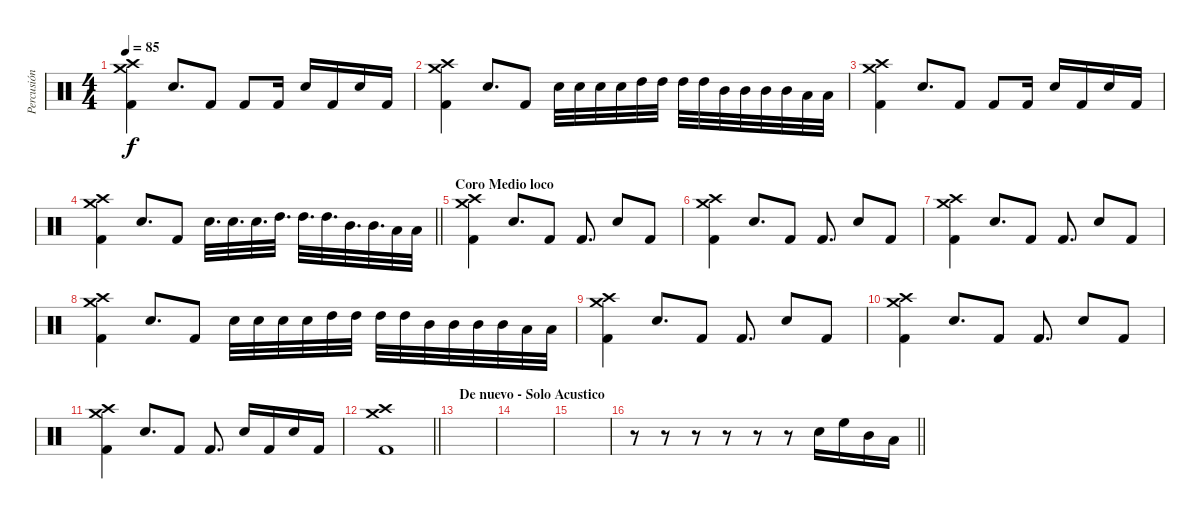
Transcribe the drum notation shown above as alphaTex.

\track ("Percusión" "Percusión") {instrument percussion}
\staff {score}
\articulation defaults
\ts (4 4)
\tempo 85
\clef neutral
\ks c
("Crash medium (hit)" "Crash high (hit)" "Kick (hit) 2").4{dy f} "Electric Snare (hit)".8{d} "Kick (hit) 2".8 "Kick (hit) 2".8 "Kick (hit) 2".16 "Electric Snare (hit)".16 "Kick (hit) 2".16 "Electric Snare (hit)".16 "Kick (hit) 2".16 |
("Crash medium (hit)" "Crash high (hit)" "Kick (hit) 2").4 "Electric Snare (hit)".8{d} "Kick (hit) 2".8 "Electric Snare (hit)".32 "Electric Snare (hit)".32 "Electric Snare (hit)".32 "Electric Snare (hit)".32 "High Tom (hit)".32 "High Tom (hit)".32 "High Tom (hit)".32 "High Tom (hit)".32 "Mid Tom (hit)".32 "Mid Tom (hit)".32 "Mid Tom (hit)".32 "Mid Tom (hit)".32 "Low Tom (hit)".32 "Low Tom (hit)".32 |
("Crash medium (hit)" "Crash high (hit)" "Kick (hit) 2").4 "Electric Snare (hit)".8{d} "Kick (hit) 2".8 "Kick (hit) 2".8 "Kick (hit) 2".16 "Electric Snare (hit)".16 "Kick (hit) 2".16 "Electric Snare (hit)".16 "Kick (hit) 2".16 |
\barLineRight lightlight
("Crash medium (hit)" "Crash high (hit)" "Kick (hit) 2").4 "Electric Snare (hit)".8{d} "Kick (hit) 2".8 "Electric Snare (hit)".32{d} "Electric Snare (hit)".32{d} "Electric Snare (hit)".32{d} "High Tom (hit)".32{d} "High Tom (hit)".32{d} "High Tom (hit)".32{d} "Mid Tom (hit)".32{d} "Mid Tom (hit)".32{d} "Low Tom (hit)".32 "Low Tom (hit)".32 |
\section ("" "Coro Medio loco")
("Crash medium (hit)" "Crash high (hit)" "Kick (hit) 2").4 "Electric Snare (hit)".8{d} "Kick (hit) 2".8 "Kick (hit) 2".8{d} "Electric Snare (hit)".8 "Kick (hit) 2".8 |
("Crash medium (hit)" "Crash high (hit)" "Kick (hit) 2").4 "Electric Snare (hit)".8{d} "Kick (hit) 2".8 "Kick (hit) 2".8{d} "Electric Snare (hit)".8 "Kick (hit) 2".8 |
("Crash medium (hit)" "Crash high (hit)" "Kick (hit) 2").4 "Electric Snare (hit)".8{d} "Kick (hit) 2".8 "Kick (hit) 2".8{d} "Electric Snare (hit)".8 "Kick (hit) 2".8 |
("Crash medium (hit)" "Crash high (hit)" "Kick (hit) 2").4 "Electric Snare (hit)".8{d} "Kick (hit) 2".8 "Electric Snare (hit)".32 "Electric Snare (hit)".32 "Electric Snare (hit)".32 "Electric Snare (hit)".32 "High Tom (hit)".32 "High Tom (hit)".32 "High Tom (hit)".32 "High Tom (hit)".32 "Mid Tom (hit)".32 "Mid Tom (hit)".32 "Mid Tom (hit)".32 "Mid Tom (hit)".32 "Low Tom (hit)".32 "Low Tom (hit)".32 |
("Crash medium (hit)" "Crash high (hit)" "Kick (hit) 2").4 "Electric Snare (hit)".8{d} "Kick (hit) 2".8 "Kick (hit) 2".8{d} "Electric Snare (hit)".8 "Kick (hit) 2".8 |
("Crash medium (hit)" "Crash high (hit)" "Kick (hit) 2").4 "Electric Snare (hit)".8{d} "Kick (hit) 2".8 "Kick (hit) 2".8{d} "Electric Snare (hit)".8 "Kick (hit) 2".8 |
("Crash medium (hit)" "Crash high (hit)" "Kick (hit) 2").4 "Electric Snare (hit)".8{d} "Kick (hit) 2".8 "Kick (hit) 2".8{d} "Electric Snare (hit)".16 "Kick (hit) 2".16 "Electric Snare (hit)".16 "Kick (hit) 2".16 |
\barLineRight lightlight
("Crash medium (hit)" "Crash high (hit)" "Kick (hit) 2").1 |
\section ("" "De nuevo - Solo Acustico")
|
|
|
\barLineRight lightlight
r.8 r.8 r.8 r.8 r.8 r.8 "Electric Snare (hit)".16 "High Floor Tom (hit)".16 "Mid Tom (hit)".16 "Low Tom (hit)".16
